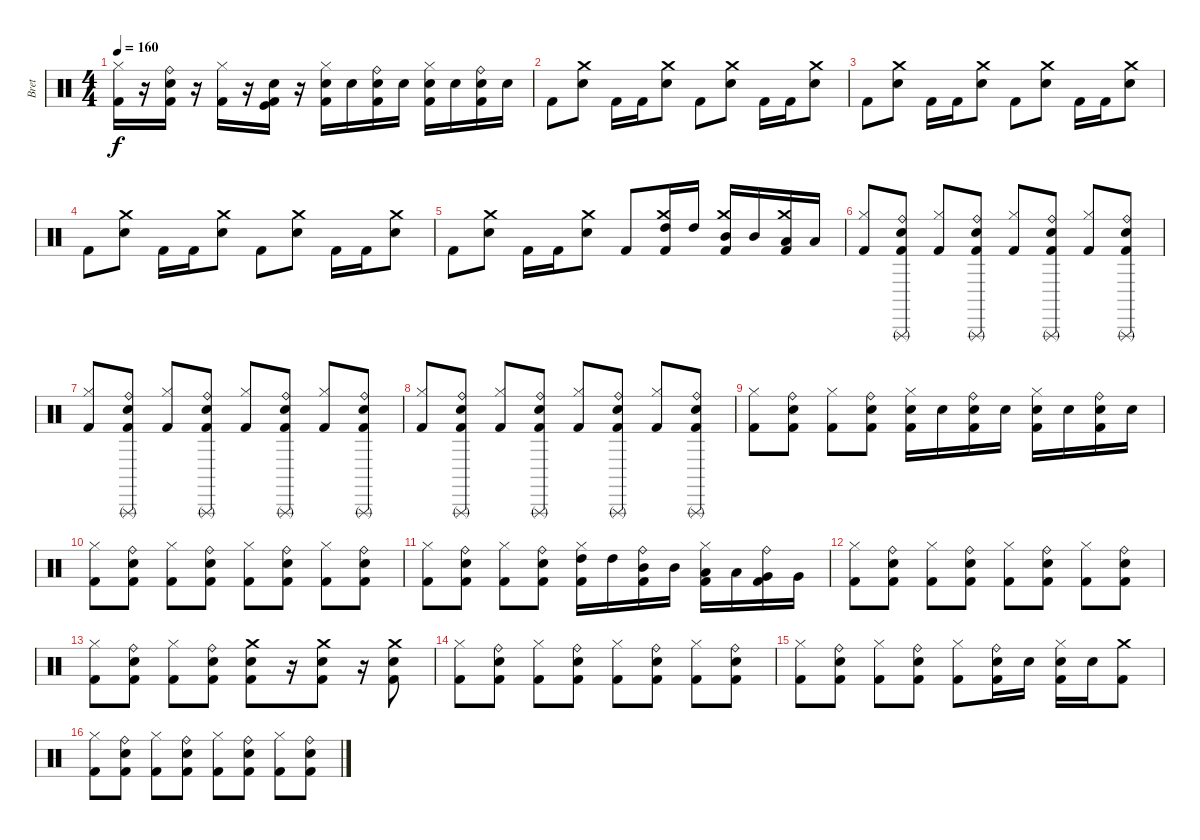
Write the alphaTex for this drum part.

\track ("Bret" "Bret") {instrument percussion}
\staff {score}
\articulation defaults
\ts (4 4)
\tempo 160
\clef neutral
\ks c
("Hi-Hat (closed)" "Kick (hit) 2").16{dy f} r.16 ("Ride (bell)" "Electric Snare (hit)" "Kick (hit) 2").16 r.16 ("Hi-Hat (closed)" "Kick (hit) 2").16 r.16 ("Kick (hit)" "Electric Snare (hit)" "Kick (hit) 2").16 r.16 ("Hi-Hat (closed)" "Electric Snare (hit)" "Kick (hit) 2").16 "Electric Snare (hit)".16 ("Ride (bell)" "Electric Snare (hit)" "Kick (hit) 2").16 "Electric Snare (hit)".16 ("Hi-Hat (closed)" "Electric Snare (hit)" "Kick (hit) 2").16 "Electric Snare (hit)".16 ("Ride (bell)" "Electric Snare (hit)" "Kick (hit) 2").16 "Electric Snare (hit)".16 |
"Kick (hit) 2".8 ("Crash medium (hit)" "Electric Snare (hit)").8 "Kick (hit) 2".16 "Kick (hit) 2".16 ("Crash medium (hit)" "Electric Snare (hit)").8 "Kick (hit) 2".8 ("Crash medium (hit)" "Electric Snare (hit)").8 "Kick (hit) 2".16 "Kick (hit) 2".16 ("Crash medium (hit)" "Electric Snare (hit)").8 |
"Kick (hit) 2".8 ("Crash medium (hit)" "Electric Snare (hit)").8 "Kick (hit) 2".16 "Kick (hit) 2".16 ("Crash medium (hit)" "Electric Snare (hit)").8 "Kick (hit) 2".8 ("Crash medium (hit)" "Electric Snare (hit)").8 "Kick (hit) 2".16 "Kick (hit) 2".16 ("Crash medium (hit)" "Electric Snare (hit)").8 |
"Kick (hit) 2".8 ("Crash medium (hit)" "Electric Snare (hit)").8 "Kick (hit) 2".16 "Kick (hit) 2".16 ("Crash medium (hit)" "Electric Snare (hit)").8 "Kick (hit) 2".8 ("Crash medium (hit)" "Electric Snare (hit)").8 "Kick (hit) 2".16 "Kick (hit) 2".16 ("Crash medium (hit)" "Electric Snare (hit)").8 |
"Kick (hit) 2".8 ("Crash medium (hit)" "Electric Snare (hit)").8 "Kick (hit) 2".16 "Kick (hit) 2".16 ("Crash medium (hit)" "Electric Snare (hit)").8 "Kick (hit) 2".8 ("Crash medium (hit)" "High Tom (hit)" "Kick (hit) 2").16 "High Tom (hit)".16 ("Crash medium (hit)" "Mid Tom (hit)" "Kick (hit) 2").16 "Mid Tom (hit)".16 ("Crash medium (hit)" "Low Tom (hit)" "Kick (hit) 2").16 "Low Tom (hit)".16 |
("Hi-Hat (closed)" "Kick (hit) 2").8 ("Ride (bell)" "Triangle (rnute)" "Electric Snare (hit)" "Kick (hit) 2").8 ("Hi-Hat (closed)" "Kick (hit) 2").8 ("Ride (bell)" "Triangle (rnute)" "Electric Snare (hit)" "Kick (hit) 2").8 ("Hi-Hat (closed)" "Kick (hit) 2").8 ("Ride (bell)" "Triangle (rnute)" "Electric Snare (hit)" "Kick (hit) 2").8 ("Hi-Hat (closed)" "Kick (hit) 2").8 ("Ride (bell)" "Triangle (rnute)" "Electric Snare (hit)" "Kick (hit) 2").8 |
("Hi-Hat (closed)" "Kick (hit) 2").8 ("Ride (bell)" "Triangle (rnute)" "Electric Snare (hit)" "Kick (hit) 2").8 ("Hi-Hat (closed)" "Kick (hit) 2").8 ("Ride (bell)" "Triangle (rnute)" "Electric Snare (hit)" "Kick (hit) 2").8 ("Hi-Hat (closed)" "Kick (hit) 2").8 ("Ride (bell)" "Triangle (rnute)" "Electric Snare (hit)" "Kick (hit) 2").8 ("Hi-Hat (closed)" "Kick (hit) 2").8 ("Ride (bell)" "Triangle (rnute)" "Electric Snare (hit)" "Kick (hit) 2").8 |
("Hi-Hat (closed)" "Kick (hit) 2").8 ("Ride (bell)" "Triangle (rnute)" "Electric Snare (hit)" "Kick (hit) 2").8 ("Hi-Hat (closed)" "Kick (hit) 2").8 ("Ride (bell)" "Triangle (rnute)" "Electric Snare (hit)" "Kick (hit) 2").8 ("Hi-Hat (closed)" "Kick (hit) 2").8 ("Ride (bell)" "Triangle (rnute)" "Electric Snare (hit)" "Kick (hit) 2").8 ("Hi-Hat (closed)" "Kick (hit) 2").8 ("Ride (bell)" "Triangle (rnute)" "Electric Snare (hit)" "Kick (hit) 2").8 |
("Hi-Hat (closed)" "Kick (hit) 2").8 ("Ride (bell)" "Electric Snare (hit)" "Kick (hit) 2").8 ("Hi-Hat (closed)" "Kick (hit) 2").8 ("Ride (bell)" "Electric Snare (hit)" "Kick (hit) 2").8 ("Hi-Hat (closed)" "Electric Snare (hit)" "Kick (hit) 2").16 "Electric Snare (hit)".16 ("Ride (bell)" "Electric Snare (hit)" "Kick (hit) 2").16 "Electric Snare (hit)".16 ("Hi-Hat (closed)" "Electric Snare (hit)" "Kick (hit) 2").16 "Electric Snare (hit)".16 ("Ride (bell)" "Electric Snare (hit)" "Kick (hit) 2").16 "Electric Snare (hit)".16 |
("Hi-Hat (closed)" "Kick (hit) 2").8 ("Ride (bell)" "Electric Snare (hit)" "Kick (hit) 2").8 ("Hi-Hat (closed)" "Kick (hit) 2").8 ("Ride (bell)" "Electric Snare (hit)" "Kick (hit) 2").8 ("Hi-Hat (closed)" "Kick (hit) 2").8 ("Ride (bell)" "Electric Snare (hit)" "Kick (hit) 2").8 ("Hi-Hat (closed)" "Kick (hit) 2").8 ("Ride (bell)" "Electric Snare (hit)" "Kick (hit) 2").8 |
("Hi-Hat (closed)" "Kick (hit) 2").8 ("Ride (bell)" "Electric Snare (hit)" "Kick (hit) 2").8 ("Hi-Hat (closed)" "Kick (hit) 2").8 ("Ride (bell)" "Electric Snare (hit)" "Kick (hit) 2").8 ("Hi-Hat (closed)" "High Tom (hit)" "Kick (hit) 2").16 "High Tom (hit)".16 ("Ride (bell)" "Mid Tom (hit)" "Kick (hit) 2").16 "Mid Tom (hit)".16 ("Hi-Hat (closed)" "Low Tom (hit)" "Kick (hit) 2").16 "Low Tom (hit)".16 ("Ride (bell)" "Very Low Tom (hit)" "Kick (hit) 2").16 "Very Low Tom (hit)".16 |
("Hi-Hat (closed)" "Kick (hit) 2").8 ("Ride (bell)" "Electric Snare (hit)" "Kick (hit) 2").8 ("Hi-Hat (closed)" "Kick (hit) 2").8 ("Ride (bell)" "Electric Snare (hit)" "Kick (hit) 2").8 ("Hi-Hat (closed)" "Kick (hit) 2").8 ("Ride (bell)" "Electric Snare (hit)" "Kick (hit) 2").8 ("Hi-Hat (closed)" "Kick (hit) 2").8 ("Ride (bell)" "Electric Snare (hit)" "Kick (hit) 2").8 |
("Hi-Hat (closed)" "Kick (hit) 2").8 ("Ride (bell)" "Electric Snare (hit)" "Kick (hit) 2").8 ("Hi-Hat (closed)" "Kick (hit) 2").8 ("Ride (bell)" "Electric Snare (hit)" "Kick (hit) 2").8 ("Crash medium (hit)" "Electric Snare (hit)" "Kick (hit) 2").8 r.16 ("Crash medium (hit)" "Electric Snare (hit)" "Kick (hit) 2").8 r.16 ("Crash medium (hit)" "Electric Snare (hit)" "Kick (hit) 2").8 |
("Hi-Hat (closed)" "Kick (hit) 2").8 ("Ride (bell)" "Electric Snare (hit)" "Kick (hit) 2").8 ("Hi-Hat (closed)" "Kick (hit) 2").8 ("Ride (bell)" "Electric Snare (hit)" "Kick (hit) 2").8 ("Hi-Hat (closed)" "Kick (hit) 2").8 ("Ride (bell)" "Electric Snare (hit)" "Kick (hit) 2").8 ("Hi-Hat (closed)" "Kick (hit) 2").8 ("Ride (bell)" "Electric Snare (hit)" "Kick (hit) 2").8 |
("Hi-Hat (closed)" "Kick (hit) 2").8 ("Ride (bell)" "Electric Snare (hit)" "Kick (hit) 2").8 ("Hi-Hat (closed)" "Kick (hit) 2").8 ("Ride (bell)" "Electric Snare (hit)" "Kick (hit) 2").8 ("Hi-Hat (closed)" "Kick (hit) 2").8 ("Ride (bell)" "Electric Snare (hit)" "Kick (hit) 2").16 "Electric Snare (hit)".16 ("Hi-Hat (closed)" "Electric Snare (hit)" "Kick (hit) 2").16 "Electric Snare (hit)".16 ("Crash medium (hit)" "Kick (hit) 2").8 |
("Hi-Hat (closed)" "Kick (hit) 2").8 ("Ride (bell)" "Electric Snare (hit)" "Kick (hit) 2").8 ("Hi-Hat (closed)" "Kick (hit) 2").8 ("Ride (bell)" "Electric Snare (hit)" "Kick (hit) 2").8 ("Hi-Hat (closed)" "Kick (hit) 2").8 ("Ride (bell)" "Electric Snare (hit)" "Kick (hit) 2").8 ("Hi-Hat (closed)" "Kick (hit) 2").8 ("Ride (bell)" "Electric Snare (hit)" "Kick (hit) 2").8
